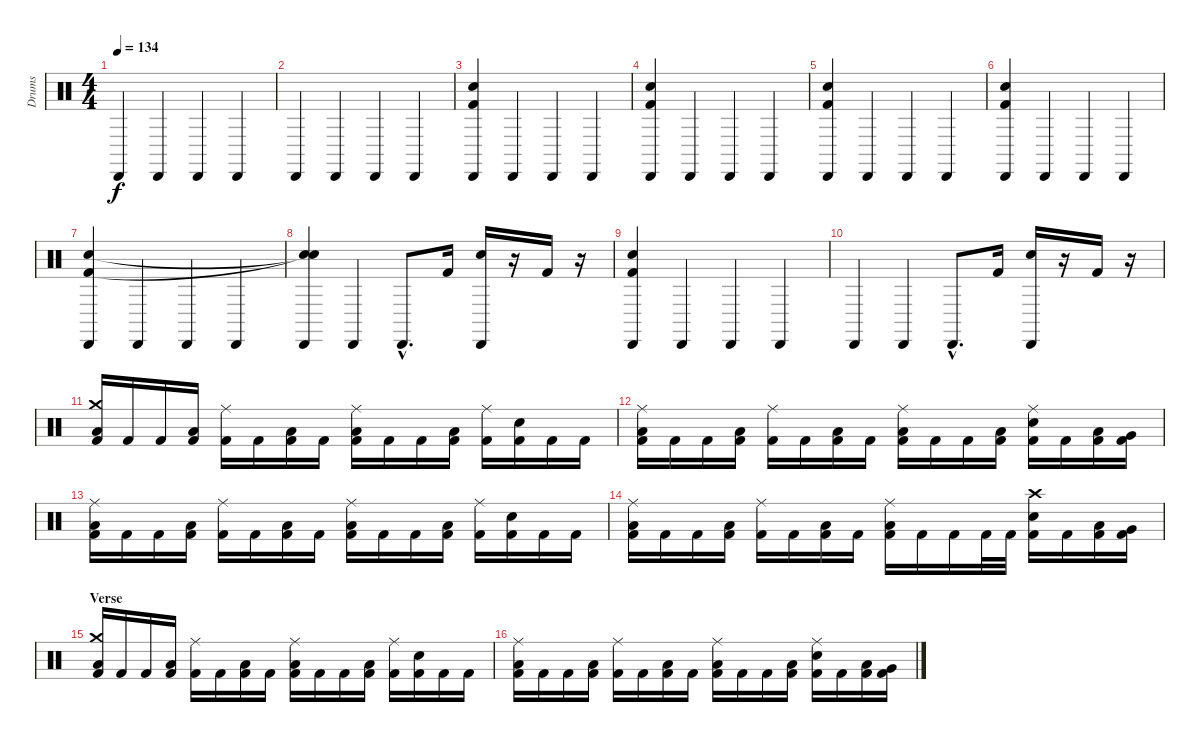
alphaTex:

\track ("Drums" "Drums") {instrument percussion}
\staff {score}
\articulation defaults
\ts (4 4)
\tempo 134
\clef neutral
\ks c "Cabasa (hit)".4{dy f} "Cabasa (hit)".4 "Cabasa (hit)".4 "Cabasa (hit)".4
|
"Cabasa (hit)".4 "Cabasa (hit)".4 "Cabasa (hit)".4 "Cabasa (hit)".4 |
("Cabasa (hit)" "Electric Snare (hit)" "Kick (hit) 2").4 "Cabasa (hit)".4 "Cabasa (hit)".4 "Cabasa (hit)".4 |
("Cabasa (hit)" "Electric Snare (hit)" "Kick (hit) 2").4 "Cabasa (hit)".4 "Cabasa (hit)".4 "Cabasa (hit)".4 |
("Cabasa (hit)" "Electric Snare (hit)" "Kick (hit) 2").4 "Cabasa (hit)".4 "Cabasa (hit)".4 "Cabasa (hit)".4 |
("Cabasa (hit)" "Electric Snare (hit)" "Kick (hit) 2").4 "Cabasa (hit)".4 "Cabasa (hit)".4 "Cabasa (hit)".4 |
("Cabasa (hit)" "Electric Snare (hit)" "Kick (hit) 2").4 "Cabasa (hit)".4 "Cabasa (hit)".4 "Cabasa (hit)".4 |
("Cabasa (hit)" "Snare (hit)"{t} "Snare (hit)"{t}).4 "Cabasa (hit)".4 "Cabasa (hit)"{hac}.8{d} "Kick (hit) 2".16 ("Cabasa (hit)" "Electric Snare (hit)").16 r.16 "Kick (hit) 2".16 r.16 |
("Cabasa (hit)" "Electric Snare (hit)" "Kick (hit) 2").4 "Cabasa (hit)".4 "Cabasa (hit)".4 "Cabasa (hit)".4 |
"Cabasa (hit)".4 "Cabasa (hit)".4 "Cabasa (hit)"{hac}.8{d} "Kick (hit) 2".16 ("Cabasa (hit)" "Electric Snare (hit)").16 r.16 "Kick (hit) 2".16 r.16 |
\section ("" "")
("Crash medium (hit)" "Low Floor Tom (hit)" "Kick (hit) 2").16 "Kick (hit) 2".16 "Kick (hit) 2".16 ("Low Floor Tom (hit)" "Kick (hit) 2").16 ("Ride (middle)" "Kick (hit) 2").16 "Kick (hit) 2".16 ("Low Floor Tom (hit)" "Kick (hit) 2").16 "Kick (hit) 2".16 ("Ride (middle)" "Low Floor Tom (hit)" "Kick (hit) 2").16 "Kick (hit) 2".16 "Kick (hit) 2".16 ("Low Floor Tom (hit)" "Kick (hit) 2").16 ("Ride (middle)" "Kick (hit) 2").16 ("Electric Snare (hit)" "Kick (hit) 2").16 "Kick (hit) 2".16 "Kick (hit) 2".16 |
("Ride (middle)" "Low Floor Tom (hit)" "Kick (hit) 2").16 "Kick (hit) 2".16 "Kick (hit) 2".16 ("Low Floor Tom (hit)" "Kick (hit) 2").16 ("Ride (middle)" "Kick (hit) 2").16 "Kick (hit) 2".16 ("Low Floor Tom (hit)" "Kick (hit) 2").16 "Kick (hit) 2".16 ("Ride (middle)" "Low Floor Tom (hit)" "Kick (hit) 2").16 "Kick (hit) 2".16 "Kick (hit) 2".16 ("Low Floor Tom (hit)" "Kick (hit) 2").16 ("Ride (middle)" "Electric Snare (hit)" "Kick (hit) 2").16 "Kick (hit) 2".16 ("Low Tom (hit)" "Kick (hit) 2").16 ("Very Low Tom (hit)" "Kick (hit) 2").16 |
("Ride (middle)" "Low Floor Tom (hit)" "Kick (hit) 2").16 "Kick (hit) 2".16 "Kick (hit) 2".16 ("Low Floor Tom (hit)" "Kick (hit) 2").16 ("Ride (middle)" "Kick (hit) 2").16 "Kick (hit) 2".16 ("Low Floor Tom (hit)" "Kick (hit) 2").16 "Kick (hit) 2".16 ("Ride (middle)" "Low Floor Tom (hit)" "Kick (hit) 2").16 "Kick (hit) 2".16 "Kick (hit) 2".16 ("Low Floor Tom (hit)" "Kick (hit) 2").16 ("Ride (middle)" "Kick (hit) 2").16 ("Electric Snare (hit)" "Kick (hit) 2").16 "Kick (hit) 2".16 "Kick (hit) 2".16 |
("Ride (middle)" "Low Floor Tom (hit)" "Kick (hit) 2").16 "Kick (hit) 2".16 "Kick (hit) 2".16 ("Low Floor Tom (hit)" "Kick (hit) 2").16 ("Ride (middle)" "Kick (hit) 2").16 "Kick (hit) 2".16 ("Low Floor Tom (hit)" "Kick (hit) 2").16 "Kick (hit) 2".16 ("Ride (middle)" "Low Floor Tom (hit)" "Kick (hit) 2").16 "Kick (hit) 2".16 "Kick (hit) 2".16 "Kick (hit) 2".32 "Kick (hit) 2".32 ("Crash high (hit)" "Electric Snare (hit)" "Kick (hit) 2").16 "Kick (hit) 2".16 ("Low Tom (hit)" "Kick (hit) 2").16 ("Very Low Tom (hit)" "Kick (hit) 2").16 |
\section ("" "Verse")
("Crash medium (hit)" "Low Floor Tom (hit)" "Kick (hit) 2").16 "Kick (hit) 2".16 "Kick (hit) 2".16 ("Low Floor Tom (hit)" "Kick (hit) 2").16 ("Ride (middle)" "Kick (hit) 2").16 "Kick (hit) 2".16 ("Low Floor Tom (hit)" "Kick (hit) 2").16 "Kick (hit) 2".16 ("Ride (middle)" "Low Floor Tom (hit)" "Kick (hit) 2").16 "Kick (hit) 2".16 "Kick (hit) 2".16 ("Low Floor Tom (hit)" "Kick (hit) 2").16 ("Ride (middle)" "Kick (hit) 2").16 ("Electric Snare (hit)" "Kick (hit) 2").16 "Kick (hit) 2".16 "Kick (hit) 2".16 |
("Ride (middle)" "Low Floor Tom (hit)" "Kick (hit) 2").16 "Kick (hit) 2".16 "Kick (hit) 2".16 ("Low Floor Tom (hit)" "Kick (hit) 2").16 ("Ride (middle)" "Kick (hit) 2").16 "Kick (hit) 2".16 ("Low Floor Tom (hit)" "Kick (hit) 2").16 "Kick (hit) 2".16 ("Ride (middle)" "Low Floor Tom (hit)" "Kick (hit) 2").16 "Kick (hit) 2".16 "Kick (hit) 2".16 ("Low Floor Tom (hit)" "Kick (hit) 2").16 ("Ride (middle)" "Electric Snare (hit)" "Kick (hit) 2").16 "Kick (hit) 2".16 ("Low Tom (hit)" "Kick (hit) 2").16 ("Very Low Tom (hit)" "Kick (hit) 2").16
